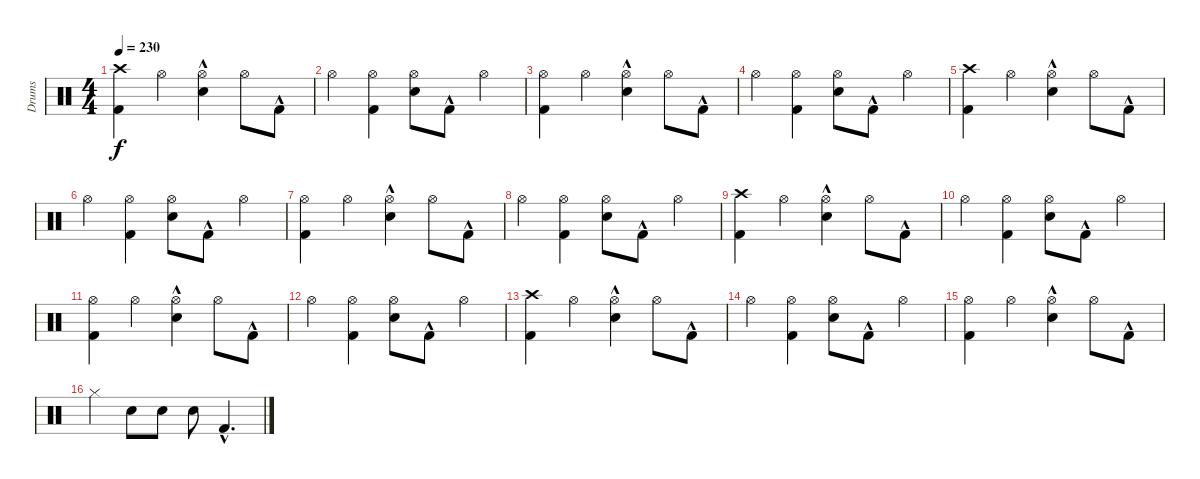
\track ("Drums" "Drums") {instrument percussion}
\staff {score}
\articulation defaults
\ts (4 4)
\tempo 230
\clef neutral
\ks c
("Crash high (hit)" "Kick (hit) 2").4{dy f} "Hi-Hat (open)".4 ("Hi-Hat (open)" "Electric Snare (hit)"{hac}).4 "Hi-Hat (open)".8 "Kick (hit) 2"{hac}.8 |
"Hi-Hat (open)".4 ("Hi-Hat (open)" "Kick (hit) 2").4 ("Hi-Hat (open)" "Electric Snare (hit)").8 "Kick (hit) 2"{hac}.8 "Hi-Hat (open)".4 |
("Hi-Hat (open)" "Kick (hit) 2").4 "Hi-Hat (open)".4 ("Hi-Hat (open)" "Electric Snare (hit)"{hac}).4 "Hi-Hat (open)".8 "Kick (hit) 2"{hac}.8 |
"Hi-Hat (open)".4 ("Hi-Hat (open)" "Kick (hit) 2").4 ("Hi-Hat (open)" "Electric Snare (hit)").8 "Kick (hit) 2"{hac}.8 "Hi-Hat (open)".4 |
("Crash high (hit)" "Kick (hit) 2").4 "Hi-Hat (open)".4 ("Hi-Hat (open)" "Electric Snare (hit)"{hac}).4 "Hi-Hat (open)".8 "Kick (hit) 2"{hac}.8 |
"Hi-Hat (open)".4 ("Hi-Hat (open)" "Kick (hit) 2").4 ("Hi-Hat (open)" "Electric Snare (hit)").8 "Kick (hit) 2"{hac}.8 "Hi-Hat (open)".4 |
("Hi-Hat (open)" "Kick (hit) 2").4 "Hi-Hat (open)".4 ("Hi-Hat (open)" "Electric Snare (hit)"{hac}).4 "Hi-Hat (open)".8 "Kick (hit) 2"{hac}.8 |
"Hi-Hat (open)".4 ("Hi-Hat (open)" "Kick (hit) 2").4 ("Hi-Hat (open)" "Electric Snare (hit)").8 "Kick (hit) 2"{hac}.8 "Hi-Hat (open)".4 |
("Crash high (hit)" "Kick (hit) 2").4 "Hi-Hat (open)".4 ("Hi-Hat (open)" "Electric Snare (hit)"{hac}).4 "Hi-Hat (open)".8 "Kick (hit) 2"{hac}.8 |
"Hi-Hat (open)".4 ("Hi-Hat (open)" "Kick (hit) 2").4 ("Hi-Hat (open)" "Electric Snare (hit)").8 "Kick (hit) 2"{hac}.8 "Hi-Hat (open)".4 |
("Hi-Hat (open)" "Kick (hit) 2").4 "Hi-Hat (open)".4 ("Hi-Hat (open)" "Electric Snare (hit)"{hac}).4 "Hi-Hat (open)".8 "Kick (hit) 2"{hac}.8 |
"Hi-Hat (open)".4 ("Hi-Hat (open)" "Kick (hit) 2").4 ("Hi-Hat (open)" "Electric Snare (hit)").8 "Kick (hit) 2"{hac}.8 "Hi-Hat (open)".4 |
("Crash high (hit)" "Kick (hit) 2").4 "Hi-Hat (open)".4 ("Hi-Hat (open)" "Electric Snare (hit)"{hac}).4 "Hi-Hat (open)".8 "Kick (hit) 2"{hac}.8 |
"Hi-Hat (open)".4 ("Hi-Hat (open)" "Kick (hit) 2").4 ("Hi-Hat (open)" "Electric Snare (hit)").8 "Kick (hit) 2"{hac}.8 "Hi-Hat (open)".4 |
("Hi-Hat (open)" "Kick (hit) 2").4 "Hi-Hat (open)".4 ("Hi-Hat (open)" "Electric Snare (hit)"{hac}).4 "Hi-Hat (open)".8 "Kick (hit) 2"{hac}.8 |
"Hi-Hat (closed)".4 "Electric Snare (hit)".8 "Electric Snare (hit)".8 "Electric Snare (hit)".8 "Kick (hit) 2"{hac}.4{d}
